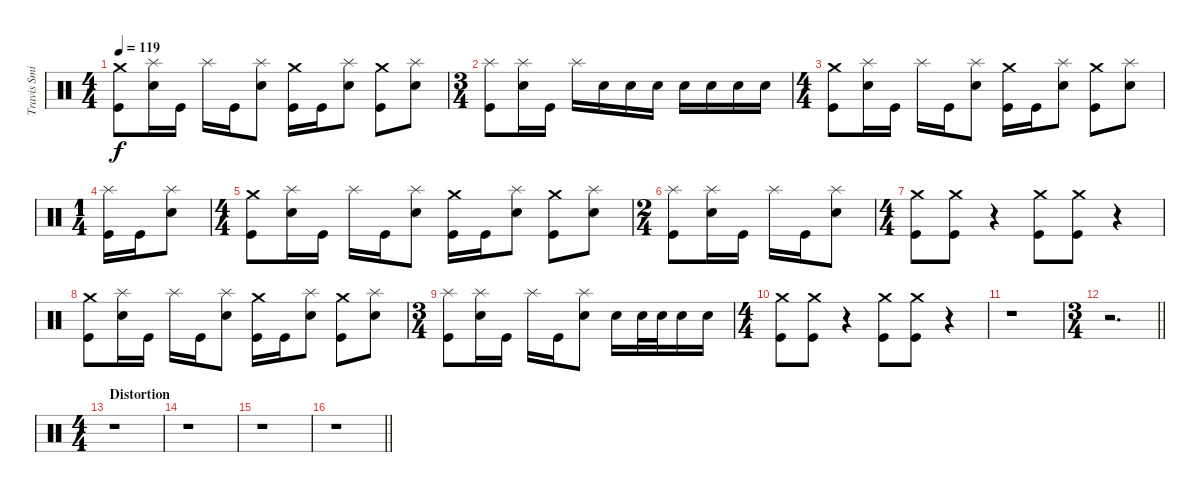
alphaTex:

\track ("Travis Smith (Drums)" "Travis Smi") {instrument percussion}
\staff {score}
\articulation defaults
\ts (4 4)
\tempo 119
\clef neutral
\ks c
("Crash medium (hit)" "Kick (hit)").8{dy f} ("Splash (hit)" "Electric Snare (hit)").16 "Kick (hit)".16 "Splash (hit)".16 "Kick (hit)".16 ("Splash (hit)" "Electric Snare (hit)").8 ("Crash medium (hit)" "Kick (hit)").16 "Kick (hit)".16 ("Splash (hit)" "Electric Snare (hit)").8 ("Crash medium (hit)" "Kick (hit)").8 ("Splash (hit)" "Electric Snare (hit)").8 |
\ts (3 4)
("Splash (hit)" "Kick (hit)").8 ("Splash (hit)" "Electric Snare (hit)").16 "Kick (hit)".16 "Splash (hit)".16 "Electric Snare (hit)".16 "Electric Snare (hit)".16 "Electric Snare (hit)".16 "Electric Snare (hit)".16 "Electric Snare (hit)".16 "Electric Snare (hit)".16 "Electric Snare (hit)".16 |
\ts (4 4)
("Crash medium (hit)" "Kick (hit)").8 ("Splash (hit)" "Electric Snare (hit)").16 "Kick (hit)".16 "Splash (hit)".16 "Kick (hit)".16 ("Splash (hit)" "Electric Snare (hit)").8 ("Crash medium (hit)" "Kick (hit)").16 "Kick (hit)".16 ("Splash (hit)" "Electric Snare (hit)").8 ("Crash medium (hit)" "Kick (hit)").8 ("Splash (hit)" "Electric Snare (hit)").8 |
\ts (1 4)
("Splash (hit)" "Kick (hit)").16 "Kick (hit)".16 ("Splash (hit)" "Electric Snare (hit)").8 |
\ts (4 4)
("Crash medium (hit)" "Kick (hit)").8 ("Splash (hit)" "Electric Snare (hit)").16 "Kick (hit)".16 "Splash (hit)".16 "Kick (hit)".16 ("Splash (hit)" "Electric Snare (hit)").8 ("Crash medium (hit)" "Kick (hit)").16 "Kick (hit)".16 ("Splash (hit)" "Electric Snare (hit)").8 ("Crash medium (hit)" "Kick (hit)").8 ("Splash (hit)" "Electric Snare (hit)").8 |
\ts (2 4)
("Splash (hit)" "Kick (hit)").8 ("Splash (hit)" "Electric Snare (hit)").16 "Kick (hit)".16 "Splash (hit)".16 "Kick (hit)".16 ("Splash (hit)" "Electric Snare (hit)").8 |
\ts (4 4)
("Crash medium (hit)" "Kick (hit)").8 ("Crash medium (hit)" "Kick (hit)").8 r.4 ("Crash medium (hit)" "Kick (hit)").8 ("Crash medium (hit)" "Kick (hit)").8 r.4 |
("Crash medium (hit)" "Kick (hit)").8 ("Splash (hit)" "Electric Snare (hit)").16 "Kick (hit)".16 "Splash (hit)".16 "Kick (hit)".16 ("Splash (hit)" "Electric Snare (hit)").8 ("Crash medium (hit)" "Kick (hit)").16 "Kick (hit)".16 ("Splash (hit)" "Electric Snare (hit)").8 ("Crash medium (hit)" "Kick (hit)").8 ("Splash (hit)" "Electric Snare (hit)").8 |
\ts (3 4)
("Splash (hit)" "Kick (hit)").8 ("Splash (hit)" "Electric Snare (hit)").16 "Kick (hit)".16 "Splash (hit)".16 "Kick (hit)".16 ("Splash (hit)" "Electric Snare (hit)").8 "Electric Snare (hit)".16 "Electric Snare (hit)".32 "Electric Snare (hit)".32 "Electric Snare (hit)".16 "Electric Snare (hit)".16 |
\ts (4 4)
("Crash medium (hit)" "Kick (hit)").8 ("Crash medium (hit)" "Kick (hit)").8 r.4 ("Crash medium (hit)" "Kick (hit)").8 ("Crash medium (hit)" "Kick (hit)").8 r.4 |
r.1 |
\ts (3 4)
\barLineRight lightlight
r.2{d} |
\ts (4 4)
\section ("" "Distortion ")
r.1 |
r.1 |
r.1 |
\barLineRight lightlight
r.1
